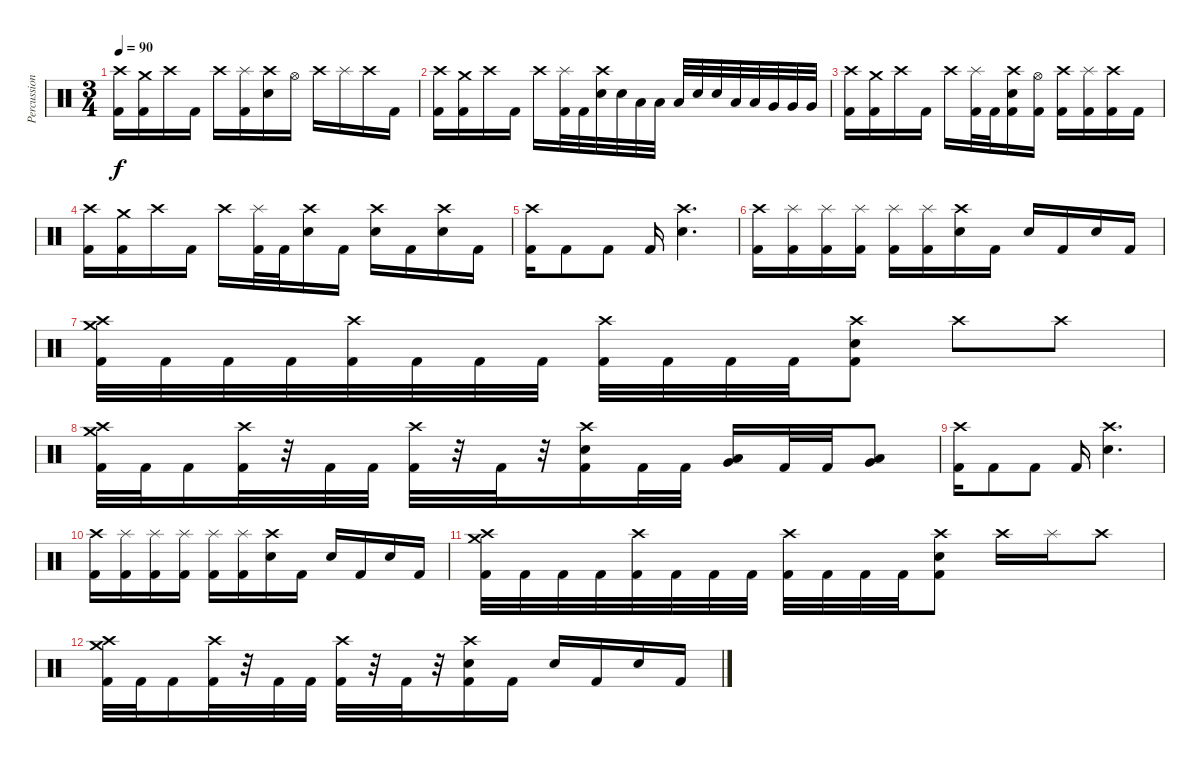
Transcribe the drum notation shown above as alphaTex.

\track ("Percussion" "Percussion") {instrument percussion}
\staff {score}
\articulation defaults
\ts (3 4)
\tempo 90
\clef neutral
\ks c
("Crash high (hit)" "Kick (hit) 2").16{dy f} ("Crash medium (hit)" "Kick (hit) 2").16 "Crash high (hit)".16 "Kick (hit) 2".16 "Crash high (hit)".16 ("Splash (hit)" "Kick (hit) 2").16 ("Crash high (hit)" "Electric Snare (hit)").16 "Hi-Hat (open)".16 "Crash high (hit)".16 "Splash (hit)".16 "Crash high (hit)".16 "Kick (hit) 2".16 |
("Crash high (hit)" "Kick (hit) 2").16 ("Crash medium (hit)" "Kick (hit) 2").16 "Crash high (hit)".16 "Kick (hit) 2".16 "Crash high (hit)".16 ("Splash (hit)" "Kick (hit) 2").32 "Kick (hit) 2".32 ("Crash high (hit)" "Electric Snare (hit)").32 "Electric Snare (hit)".32 "Low Tom (hit)".32 "Low Tom (hit)".32 "Low Tom (hit)".32 "Electric Snare (hit)".32 "Electric Snare (hit)".32 "Low Tom (hit)".32 "Low Tom (hit)".32 "Very Low Tom (hit)".32 "Very Low Tom (hit)".32 "Very Low Tom (hit)".32 |
("Crash high (hit)" "Kick (hit) 2").16 ("Crash medium (hit)" "Kick (hit) 2").16 "Crash high (hit)".16 "Kick (hit) 2".16 "Crash high (hit)".16 ("Splash (hit)" "Kick (hit) 2").32 "Kick (hit) 2".32 ("Crash high (hit)" "Electric Snare (hit)" "Kick (hit) 2").16 ("Hi-Hat (open)" "Kick (hit) 2").16 ("Crash high (hit)" "Kick (hit) 2").16 ("Splash (hit)" "Kick (hit) 2").16 ("Crash high (hit)" "Kick (hit) 2").16 "Kick (hit) 2".16 |
("Crash high (hit)" "Kick (hit) 2").16 ("Crash medium (hit)" "Kick (hit) 2").16 "Crash high (hit)".16 "Kick (hit) 2".16 "Crash high (hit)".16 ("Splash (hit)" "Kick (hit) 2").32 "Kick (hit) 2".32 ("Crash high (hit)" "Electric Snare (hit)").16 "Kick (hit) 2".16 ("Crash high (hit)" "Electric Snare (hit)").16 "Kick (hit) 2".16 ("Crash high (hit)" "Electric Snare (hit)").16 "Kick (hit) 2".16 |
("Crash high (hit)" "Kick (hit) 2").16 "Kick (hit) 2".8 "Kick (hit) 2".8 "Kick (hit) 2".16 ("Crash high (hit)" "Electric Snare (hit)").4{d} |
("Crash high (hit)" "Kick (hit) 2").16 ("Splash (hit)" "Kick (hit) 2").16 ("Splash (hit)" "Kick (hit) 2").16 ("Splash (hit)" "Kick (hit) 2").16 ("Splash (hit)" "Kick (hit) 2").16 ("Splash (hit)" "Kick (hit) 2").16 ("Crash high (hit)" "Electric Snare (hit)").16 "Kick (hit) 2".16 "Electric Snare (hit)".16 "Kick (hit) 2".16 "Electric Snare (hit)".16 "Kick (hit) 2".16 |
("Crash medium (hit)" "Crash high (hit)" "Kick (hit) 2").32 "Kick (hit) 2".32 "Kick (hit) 2".32 "Kick (hit) 2".32 ("Crash high (hit)" "Kick (hit) 2").32 "Kick (hit) 2".32 "Kick (hit) 2".32 "Kick (hit) 2".32 ("Crash high (hit)" "Kick (hit) 2").32 "Kick (hit) 2".32 "Kick (hit) 2".32 "Kick (hit) 2".32 ("Crash high (hit)" "Electric Snare (hit)" "Kick (hit) 2").8 "Crash high (hit)".8 "Crash high (hit)".8 |
("Crash medium (hit)" "Crash high (hit)" "Kick (hit) 2").32 "Kick (hit) 2".32 "Kick (hit) 2".16 ("Crash high (hit)" "Kick (hit) 2").32 r.32 "Kick (hit) 2".32 "Kick (hit) 2".32 ("Crash high (hit)" "Kick (hit) 2").32 r.32 "Kick (hit) 2".32 r.32 ("Crash high (hit)" "Electric Snare (hit)" "Kick (hit) 2").16 "Kick (hit) 2".32 "Kick (hit) 2".32 ("Low Tom (hit)" "Very Low Tom (hit)").16 "Kick (hit) 2".32 "Kick (hit) 2".32 ("Low Tom (hit)" "Very Low Tom (hit)").8 |
("Crash high (hit)" "Kick (hit) 2").16 "Kick (hit) 2".8 "Kick (hit) 2".8 "Kick (hit) 2".16 ("Crash high (hit)" "Electric Snare (hit)").4{d} |
("Crash high (hit)" "Kick (hit) 2").16 ("Splash (hit)" "Kick (hit) 2").16 ("Splash (hit)" "Kick (hit) 2").16 ("Splash (hit)" "Kick (hit) 2").16 ("Splash (hit)" "Kick (hit) 2").16 ("Splash (hit)" "Kick (hit) 2").16 ("Crash high (hit)" "Electric Snare (hit)").16 "Kick (hit) 2".16 "Electric Snare (hit)".16 "Kick (hit) 2".16 "Electric Snare (hit)".16 "Kick (hit) 2".16 |
("Crash medium (hit)" "Crash high (hit)" "Kick (hit) 2").32 "Kick (hit) 2".32 "Kick (hit) 2".32 "Kick (hit) 2".32 ("Crash high (hit)" "Kick (hit) 2").32 "Kick (hit) 2".32 "Kick (hit) 2".32 "Kick (hit) 2".32 ("Crash high (hit)" "Kick (hit) 2").32 "Kick (hit) 2".32 "Kick (hit) 2".32 "Kick (hit) 2".32 ("Crash high (hit)" "Electric Snare (hit)" "Kick (hit) 2").8 "Crash high (hit)".16 "Splash (hit)".16 "Crash high (hit)".8 |
("Crash medium (hit)" "Crash high (hit)" "Kick (hit) 2").32 "Kick (hit) 2".32 "Kick (hit) 2".16 ("Crash high (hit)" "Kick (hit) 2").32 r.32 "Kick (hit) 2".32 "Kick (hit) 2".32 ("Crash high (hit)" "Kick (hit) 2").32 r.32 "Kick (hit) 2".32 r.32 ("Crash high (hit)" "Electric Snare (hit)" "Kick (hit) 2").16 "Kick (hit) 2".16 "Electric Snare (hit)".16 "Kick (hit) 2".16 "Electric Snare (hit)".16 "Kick (hit) 2".16
